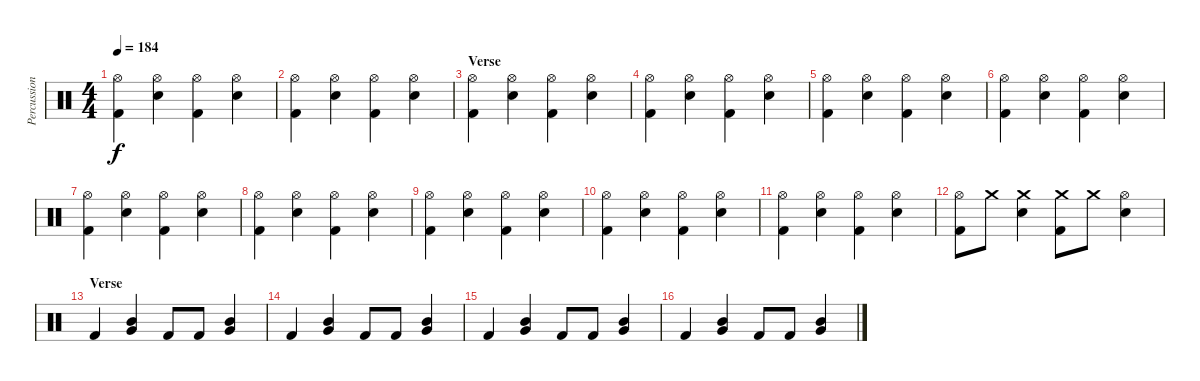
\track ("Percussioni" "Percussion") {instrument percussion}
\staff {score}
\articulation defaults
\ts (4 4)
\tempo 184
\clef neutral
\ks c
("Hi-Hat (open)" "Kick (hit) 2").4{dy f} ("Hi-Hat (open)" "Electric Snare (hit)").4 ("Hi-Hat (open)" "Kick (hit) 2").4 ("Hi-Hat (open)" "Electric Snare (hit)").4 |
("Hi-Hat (open)" "Kick (hit) 2").4 ("Hi-Hat (open)" "Electric Snare (hit)").4 ("Hi-Hat (open)" "Kick (hit) 2").4 ("Hi-Hat (open)" "Electric Snare (hit)").4 |
\section ("" "Verse")
("Hi-Hat (open)" "Kick (hit) 2").4 ("Hi-Hat (open)" "Electric Snare (hit)").4 ("Hi-Hat (open)" "Kick (hit) 2").4 ("Hi-Hat (open)" "Electric Snare (hit)").4 |
("Hi-Hat (open)" "Kick (hit) 2").4 ("Hi-Hat (open)" "Electric Snare (hit)").4 ("Hi-Hat (open)" "Kick (hit) 2").4 ("Hi-Hat (open)" "Electric Snare (hit)").4 |
("Hi-Hat (open)" "Kick (hit) 2").4 ("Hi-Hat (open)" "Electric Snare (hit)").4 ("Hi-Hat (open)" "Kick (hit) 2").4 ("Hi-Hat (open)" "Electric Snare (hit)").4 |
("Hi-Hat (open)" "Kick (hit) 2").4 ("Hi-Hat (open)" "Electric Snare (hit)").4 ("Hi-Hat (open)" "Kick (hit) 2").4 ("Hi-Hat (open)" "Electric Snare (hit)").4 |
("Hi-Hat (open)" "Kick (hit) 2").4 ("Hi-Hat (open)" "Electric Snare (hit)").4 ("Hi-Hat (open)" "Kick (hit) 2").4 ("Hi-Hat (open)" "Electric Snare (hit)").4 |
("Hi-Hat (open)" "Kick (hit) 2").4 ("Hi-Hat (open)" "Electric Snare (hit)").4 ("Hi-Hat (open)" "Kick (hit) 2").4 ("Hi-Hat (open)" "Electric Snare (hit)").4 |
("Hi-Hat (open)" "Kick (hit) 2").4 ("Hi-Hat (open)" "Electric Snare (hit)").4 ("Hi-Hat (open)" "Kick (hit) 2").4 ("Hi-Hat (open)" "Electric Snare (hit)").4 |
("Hi-Hat (open)" "Kick (hit) 2").4 ("Hi-Hat (open)" "Electric Snare (hit)").4 ("Hi-Hat (open)" "Kick (hit) 2").4 ("Hi-Hat (open)" "Electric Snare (hit)").4 |
("Hi-Hat (open)" "Kick (hit) 2").4 ("Hi-Hat (open)" "Electric Snare (hit)").4 ("Hi-Hat (open)" "Kick (hit) 2").4 ("Hi-Hat (open)" "Electric Snare (hit)").4 |
("Hi-Hat (open)" "Kick (hit) 2").8 "Crash medium (hit)".8 ("Crash medium (hit)" "Electric Snare (hit)").4 ("Crash medium (hit)" "Kick (hit) 2").8 "Crash medium (hit)".8 ("Hi-Hat (open)" "Electric Snare (hit)").4 |
\section ("" "Verse")
"Kick (hit) 2".4 ("Very Low Tom (hit)" "Mid Tom (hit)").4 "Kick (hit) 2".8 "Kick (hit) 2".8 ("Very Low Tom (hit)" "Mid Tom (hit)").4 |
"Kick (hit) 2".4 ("Very Low Tom (hit)" "Mid Tom (hit)").4 "Kick (hit) 2".8 "Kick (hit) 2".8 ("Very Low Tom (hit)" "Mid Tom (hit)").4 |
"Kick (hit) 2".4 ("Very Low Tom (hit)" "Mid Tom (hit)").4 "Kick (hit) 2".8 "Kick (hit) 2".8 ("Very Low Tom (hit)" "Mid Tom (hit)").4 |
"Kick (hit) 2".4 ("Very Low Tom (hit)" "Mid Tom (hit)").4 "Kick (hit) 2".8 "Kick (hit) 2".8 ("Very Low Tom (hit)" "Mid Tom (hit)").4
